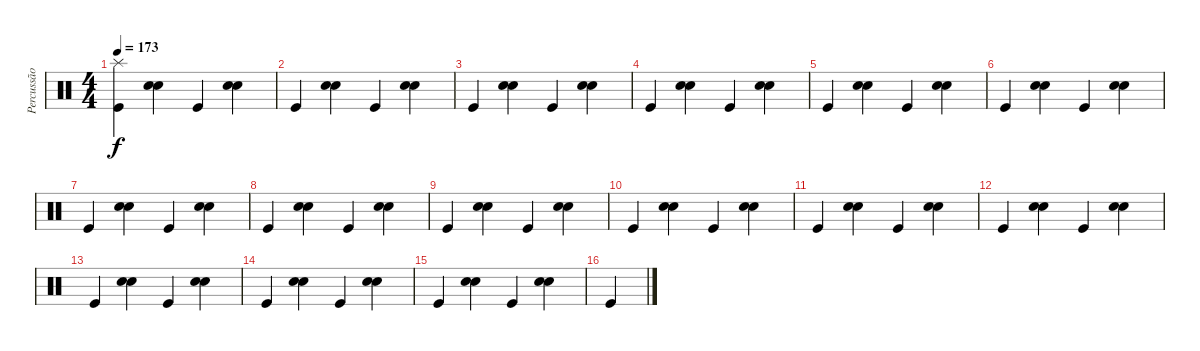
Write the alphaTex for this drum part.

\track ("Percussão" "Percussão") {instrument percussion}
\staff {score}
\articulation defaults
\ts (4 4)
\tempo 173
\clef neutral
\ks c
("Kick (hit)" "Splash (hit)").4{dy f} ("Snare (hit) 2" "Electric Snare (hit)").4 "Kick (hit)".4 ("Snare (hit) 2" "Electric Snare (hit)").4 |
"Kick (hit)".4 ("Snare (hit) 2" "Electric Snare (hit)").4 "Kick (hit)".4 ("Snare (hit) 2" "Electric Snare (hit)").4 |
"Kick (hit)".4 ("Snare (hit) 2" "Electric Snare (hit)").4 "Kick (hit)".4 ("Snare (hit) 2" "Electric Snare (hit)").4 |
"Kick (hit)".4 ("Snare (hit) 2" "Electric Snare (hit)").4 "Kick (hit)".4 ("Snare (hit) 2" "Electric Snare (hit)").4 |
"Kick (hit)".4 ("Snare (hit) 2" "Electric Snare (hit)").4 "Kick (hit)".4 ("Snare (hit) 2" "Electric Snare (hit)").4 |
"Kick (hit)".4 ("Snare (hit) 2" "Electric Snare (hit)").4 "Kick (hit)".4 ("Snare (hit) 2" "Electric Snare (hit)").4 |
"Kick (hit)".4 ("Snare (hit) 2" "Electric Snare (hit)").4 "Kick (hit)".4 ("Snare (hit) 2" "Electric Snare (hit)").4 |
"Kick (hit)".4 ("Snare (hit) 2" "Electric Snare (hit)").4 "Kick (hit)".4 ("Snare (hit) 2" "Electric Snare (hit)").4 |
"Kick (hit)".4 ("Snare (hit) 2" "Electric Snare (hit)").4 "Kick (hit)".4 ("Snare (hit) 2" "Electric Snare (hit)").4 |
"Kick (hit)".4 ("Snare (hit) 2" "Electric Snare (hit)").4 "Kick (hit)".4 ("Snare (hit) 2" "Electric Snare (hit)").4 |
"Kick (hit)".4 ("Snare (hit) 2" "Electric Snare (hit)").4 "Kick (hit)".4 ("Snare (hit) 2" "Electric Snare (hit)").4 |
"Kick (hit)".4 ("Snare (hit) 2" "Electric Snare (hit)").4 "Kick (hit)".4 ("Snare (hit) 2" "Electric Snare (hit)").4 |
"Kick (hit)".4 ("Snare (hit) 2" "Electric Snare (hit)").4 "Kick (hit)".4 ("Snare (hit) 2" "Electric Snare (hit)").4 |
"Kick (hit)".4 ("Snare (hit) 2" "Electric Snare (hit)").4 "Kick (hit)".4 ("Snare (hit) 2" "Electric Snare (hit)").4 |
"Kick (hit)".4 ("Snare (hit) 2" "Electric Snare (hit)").4 "Kick (hit)".4 ("Snare (hit) 2" "Electric Snare (hit)").4 |
"Kick (hit)".4
